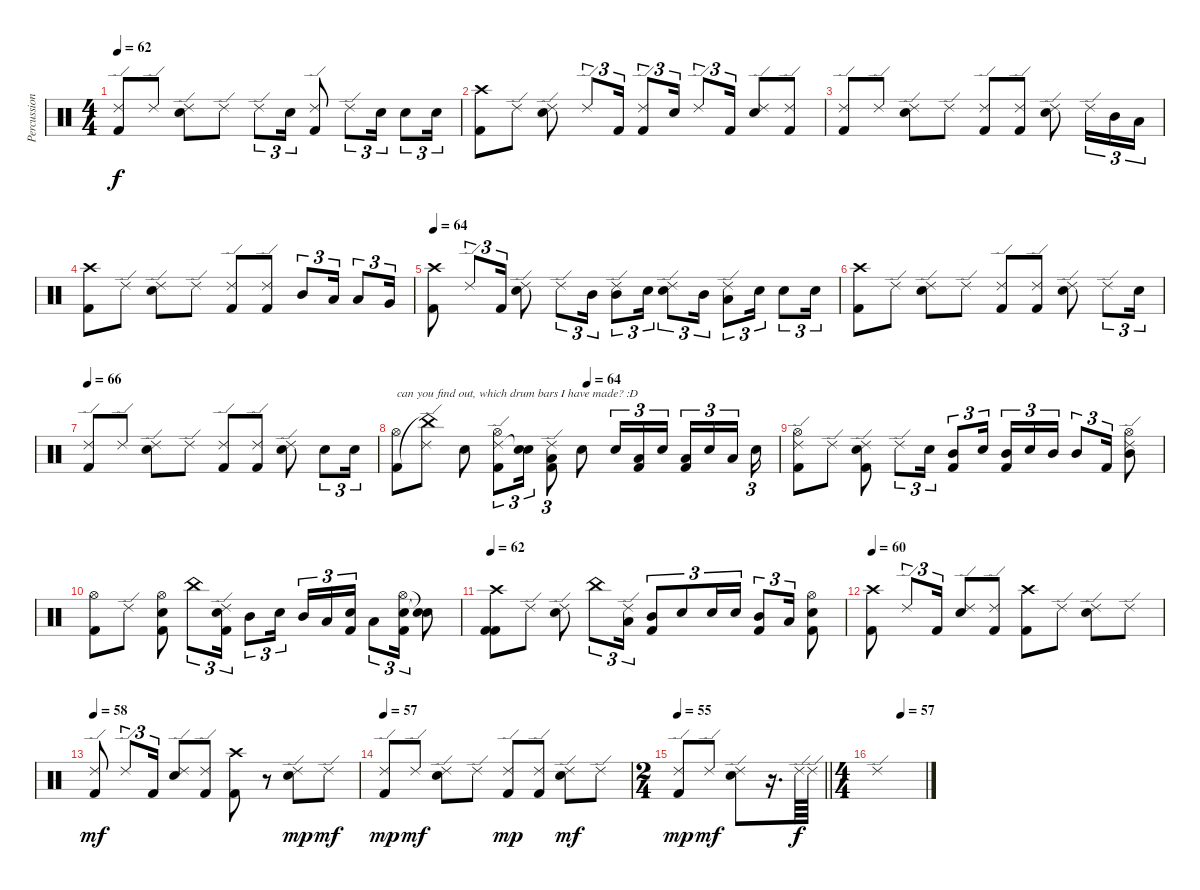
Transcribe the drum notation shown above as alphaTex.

\track ("Percussion" "Percussion") {instrument percussion}
\staff {score}
\articulation defaults
\ts (4 4)
\tempo 62
\clef neutral
\ks c
("Ride (edge) 2" "Kick (hit) 2").8{dy f} "Ride (edge) 2".8 ("Ride (edge) 2" "Electric Snare (hit)").8 "Ride (edge) 2".8 "Ride (edge) 2".8{tu (3 2)} "Electric Snare (hit)".16{tu (3 2)} ("Ride (edge) 2" "Kick (hit) 2").8 "Ride (edge) 2".8{tu (3 2)} "Electric Snare (hit)".16{tu (3 2)} "Electric Snare (hit)".8{tu (3 2)} "Electric Snare (hit)".16{tu (3 2)} |
("Crash high (hit)" "Kick (hit) 2").8 "Ride (edge) 2".8 ("Ride (edge) 2" "Electric Snare (hit)").8 "Ride (edge) 2".8{tu (3 2)} "Kick (hit) 2".16{tu (3 2)} ("Ride (edge) 2" "Kick (hit) 2").8{tu (3 2)} "Electric Snare (hit)".16{tu (3 2)} "Ride (edge) 2".8{tu (3 2)} "Kick (hit) 2".16{tu (3 2)} ("Ride (edge) 2" "Electric Snare (hit)").8 ("Ride (edge) 2" "Kick (hit) 2").8 |
("Ride (edge) 2" "Kick (hit) 2").8 "Ride (edge) 2".8 ("Ride (edge) 2" "Electric Snare (hit)").8 "Ride (edge) 2".8 ("Ride (edge) 2" "Kick (hit) 2").8 ("Ride (edge) 2" "Kick (hit) 2").8 ("Ride (edge) 2" "Electric Snare (hit)").8 "Ride (edge) 2".16{tu (3 2)} "Mid Tom (hit)".16{tu (3 2)} "Low Tom (hit)".16{tu (3 2)} |
("Crash high (hit)" "Kick (hit) 2").8 "Ride (edge) 2".8 ("Ride (edge) 2" "Electric Snare (hit)").8 "Ride (edge) 2".8 ("Ride (edge) 2" "Kick (hit) 2").8 ("Ride (edge) 2" "Kick (hit) 2").8 "Mid Tom (hit)".8{tu (3 2)} "Low Tom (hit)".16{tu (3 2)} "Low Tom (hit)".8{tu (3 2)} "Very Low Tom (hit)".16{tu (3 2)} |
\tempo 64
("Crash high (hit)" "Kick (hit) 2").8 "Ride (edge) 2".8{tu (3 2)} "Kick (hit) 2".16{tu (3 2)} ("Ride (edge) 2" "Electric Snare (hit)").8 "Ride (edge) 2".8{tu (3 2)} "Mid Tom (hit)".16{tu (3 2)} ("Ride (edge) 2" "Mid Tom (hit)").8{tu (3 2)} "Electric Snare (hit)".16{tu (3 2)} ("Ride (edge) 2" "Electric Snare (hit)").8{tu (3 2)} "Mid Tom (hit)".16{tu (3 2)} ("Ride (edge) 2" "Low Tom (hit)").8{tu (3 2)} "Electric Snare (hit)".16{tu (3 2)} "Electric Snare (hit)".8{tu (3 2)} "Electric Snare (hit)".16{tu (3 2)} |
("Crash high (hit)" "Kick (hit) 2").8 "Ride (edge) 2".8 ("Ride (edge) 2" "Electric Snare (hit)").8 "Ride (edge) 2".8 ("Ride (edge) 2" "Kick (hit) 2").8 ("Ride (edge) 2" "Kick (hit) 2").8 ("Ride (edge) 2" "Electric Snare (hit)").8 "Ride (edge) 2".8{tu (3 2)} "Electric Snare (hit)".16{tu (3 2)} |
\tempo 66
("Ride (edge) 2" "Kick (hit) 2").8 "Ride (edge) 2".8 ("Ride (edge) 2" "Electric Snare (hit)").8 "Ride (edge) 2".8 ("Ride (edge) 2" "Kick (hit) 2").8 ("Ride (edge) 2" "Kick (hit) 2").8 ("Ride (edge) 2" "Electric Snare (hit)").8 "Electric Snare (hit)".8{tu (3 2)} "Electric Snare (hit)".16{tu (3 2)} |
\tempo (64 0.5)
("Hi-Hat (open)" "Kick (hit) 2").8{txt "can you find out, which drum bars I have made? :D"} ("Ride (edge) 2" "China (hit)"{t}).8 "Electric Snare (hit)".8 ("Ride (edge) 2" "Hi-Hat (open)" "Kick (hit) 2").8{tu (3 2)} ("Snare (hit)"{t} "Electric Snare (hit)").16{tu (3 2)} ("Ride (edge) 2" "Low Tom (hit)" "Kick (hit) 2").8{tu (3 2)} "Electric Snare (hit)".8 "Electric Snare (hit)".16{tu (3 2)} ("Low Tom (hit)" "Kick (hit) 2").16{tu (3 2)} "Electric Snare (hit)".16{tu (3 2) beam splitsecondary} ("Low Tom (hit)" "Kick (hit) 2").16{tu (3 2)} "Electric Snare (hit)".16{tu (3 2)} "Low Tom (hit)".16{tu (3 2) beam splitsecondary} "Electric Snare (hit)".16{tu (3 2)} |
("Ride (edge) 2" "Hi-Hat (open)" "Kick (hit) 2").8 "Ride (edge) 2".8 ("Ride (edge) 2" "Electric Snare (hit)" "Kick (hit) 2").8 "Ride (edge) 2".8{tu (3 2)} "Electric Snare (hit)".16{tu (3 2)} ("Mid Tom (hit)" "Kick (hit) 2").8{tu (3 2)} "Electric Snare (hit)".16{tu (3 2) beam splitsecondary} ("Mid Tom (hit)" "Kick (hit) 2").16{tu (3 2)} "Electric Snare (hit)".16{tu (3 2)} "Mid Tom (hit)".16{tu (3 2)} "Mid Tom (hit)".8{tu (3 2)} "Kick (hit) 2".16{tu (3 2)} ("Ride (edge) 2" "Hi-Hat (open)" "Mid Tom (hit)").8 |
("Hi-Hat (open)" "Kick (hit) 2").8 "Ride (edge) 2".8 ("Hi-Hat (open)" "Electric Snare (hit)" "Kick (hit) 2").8 "China (hit)".8{tu (3 2)} ("Ride (edge) 2" "Electric Snare (hit)" "Kick (hit) 2").16{tu (3 2)} "Mid Tom (hit)".8{tu (3 2)} "Electric Snare (hit)".16{tu (3 2) beam splitsecondary} "Mid Tom (hit)".16{tu (3 2)} "Low Tom (hit)".16{tu (3 2)} ("Electric Snare (hit)" "Kick (hit) 2").16{tu (3 2)} "Low Tom (hit)".8{tu (3 2)} ("Hi-Hat (open)" "Electric Snare (hit)" "Kick (hit) 2").16{tu (3 2)} ("Snare (hit)"{t} "Snare (hit)"{t}).8 |
\tempo 62
("Crash high (hit)" "Kick (hit) 2" "Kick (hit) 2").8 "Ride (edge) 2".8 ("Ride (edge) 2" "Electric Snare (hit)").8 "China (hit)".8{tu (3 2)} ("Ride (edge) 2" "Low Tom (hit)").16{tu (3 2)} ("Mid Tom (hit)" "Kick (hit) 2").8{tu (3 2)} "Electric Snare (hit)".8{tu (3 2)} "Electric Snare (hit)".16{tu (3 2)} "Electric Snare (hit)".16{tu (3 2)} ("Mid Tom (hit)" "Kick (hit) 2").8{tu (3 2)} "Low Tom (hit)".16{tu (3 2)} ("Hi-Hat (open)" "Electric Snare (hit)" "Kick (hit) 2").8 |
\tempo 60
("Crash high (hit)" "Kick (hit) 2").8 "Ride (edge) 2".8{tu (3 2)} "Kick (hit) 2".16{tu (3 2)} ("Ride (edge) 2" "Electric Snare (hit)").8 ("Ride (edge) 2" "Kick (hit) 2").8 ("Crash high (hit)" "Kick (hit) 2").8 "Ride (edge) 2".8 ("Ride (edge) 2" "Electric Snare (hit)").8 "Ride (edge) 2".8 |
\tempo 58
("Ride (edge) 2" "Kick (hit) 2").8{dy mf} "Ride (edge) 2".8{tu (3 2)} "Kick (hit) 2".16{tu (3 2)} ("Ride (edge) 2" "Electric Snare (hit)").8 ("Ride (edge) 2" "Kick (hit) 2").8 ("Crash high (hit)" "Kick (hit) 2").8 r.8 ("Ride (edge) 2" "Electric Snare (hit)").8{dy mp} "Ride (edge) 2".8{dy mf} |
\tempo 57
("Ride (edge) 2" "Kick (hit) 2").8{dy mp} "Ride (edge) 2".8{dy mf} ("Ride (edge) 2" "Electric Snare (hit)").8 "Ride (edge) 2".8 ("Ride (edge) 2" "Kick (hit) 2").8{dy mp} ("Ride (edge) 2" "Kick (hit) 2").8 ("Ride (edge) 2" "Electric Snare (hit)").8{dy mf} "Ride (edge) 2".8 |
\ts (2 4)
\tempo 55
\barLineRight lightlight
("Ride (edge) 2" "Kick (hit) 2").8{dy mp} "Ride (edge) 2".8{dy mf} ("Ride (edge) 2" "Electric Snare (hit)").8 r.16{d} "Ride (edge) 2".64{dy f} "Ride (edge) 2".64 |
\ts (4 4)
\tempo (57 0.5)
"Ride (edge) 2".1
